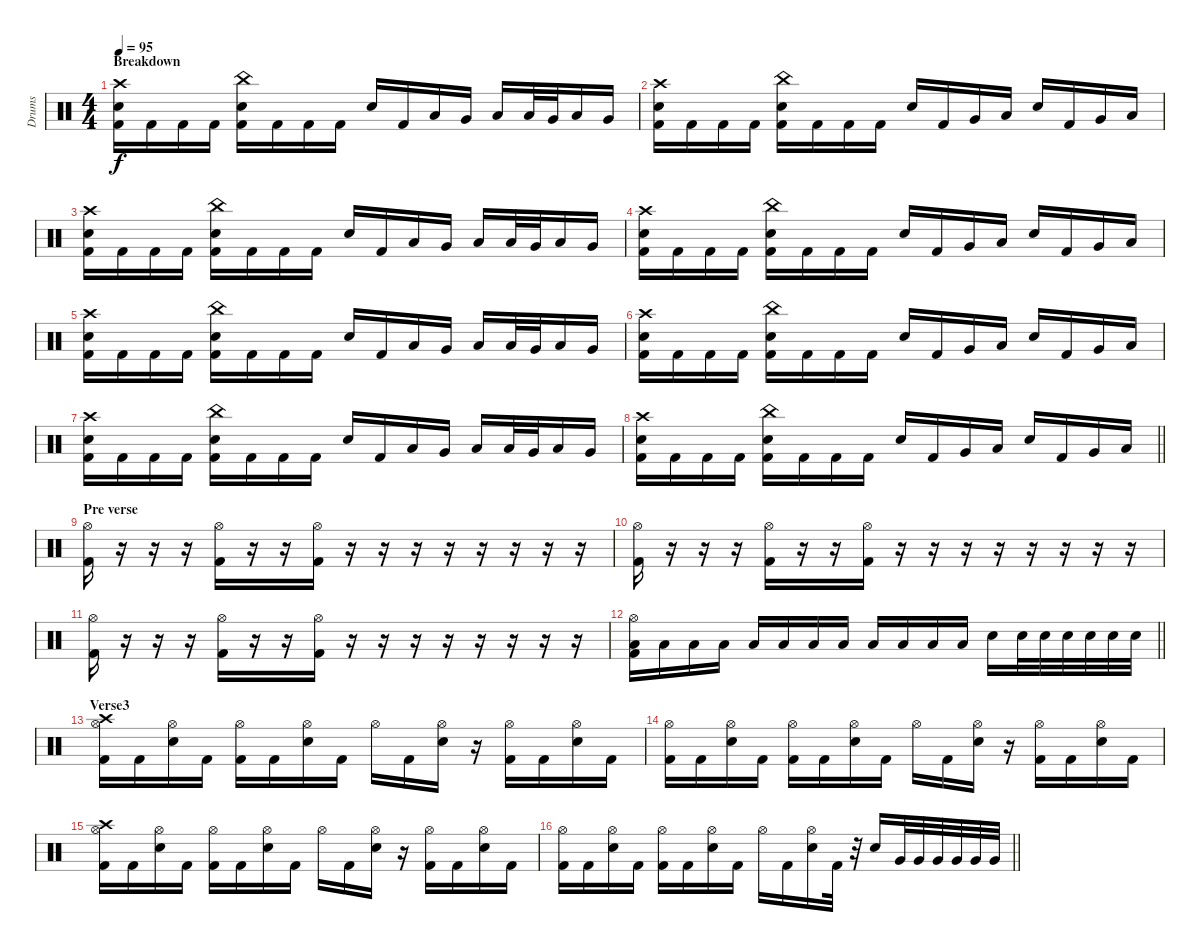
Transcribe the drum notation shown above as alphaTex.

\track ("Drums" "Drums") {instrument percussion}
\staff {score}
\articulation defaults
\ts (4 4)
\section ("" "Breakdown")
\tempo 95
\clef neutral
\ks c
("Crash high (hit)" "Kick (hit) 2" "Snare (hit) 2").16{dy f} "Kick (hit) 2".16 "Kick (hit) 2".16 "Kick (hit) 2".16 ("China (hit)" "Kick (hit) 2" "Snare (hit) 2").16 "Kick (hit) 2".16 "Kick (hit) 2".16 "Kick (hit) 2".16 "Snare (hit) 2".16 "Kick (hit) 2".16 "Low Tom (hit)".16 "Very Low Tom (hit)".16 "Low Floor Tom (hit)".16 "Low Tom (hit)".32 "Very Low Tom (hit)".32 "Low Floor Tom (hit)".16 "Very Low Tom (hit)".16 |
("Crash high (hit)" "Kick (hit) 2" "Snare (hit) 2").16 "Kick (hit) 2".16 "Kick (hit) 2".16 "Kick (hit) 2".16 ("China (hit)" "Kick (hit) 2" "Snare (hit) 2").16 "Kick (hit) 2".16 "Kick (hit) 2".16 "Kick (hit) 2".16 "Snare (hit) 2".16 "Kick (hit) 2".16 "Very Low Tom (hit)".16 "Low Floor Tom (hit)".16 "Snare (hit) 2".16 "Kick (hit) 2".16 "Very Low Tom (hit)".16 "Low Floor Tom (hit)".16 |
("Crash high (hit)" "Kick (hit) 2" "Snare (hit) 2").16 "Kick (hit) 2".16 "Kick (hit) 2".16 "Kick (hit) 2".16 ("China (hit)" "Kick (hit) 2" "Snare (hit) 2").16 "Kick (hit) 2".16 "Kick (hit) 2".16 "Kick (hit) 2".16 "Snare (hit) 2".16 "Kick (hit) 2".16 "Low Tom (hit)".16 "Very Low Tom (hit)".16 "Low Floor Tom (hit)".16 "Low Tom (hit)".32 "Very Low Tom (hit)".32 "Low Floor Tom (hit)".16 "Very Low Tom (hit)".16 |
("Crash high (hit)" "Kick (hit) 2" "Snare (hit) 2").16 "Kick (hit) 2".16 "Kick (hit) 2".16 "Kick (hit) 2".16 ("China (hit)" "Kick (hit) 2" "Snare (hit) 2").16 "Kick (hit) 2".16 "Kick (hit) 2".16 "Kick (hit) 2".16 "Snare (hit) 2".16 "Kick (hit) 2".16 "Very Low Tom (hit)".16 "Low Floor Tom (hit)".16 "Snare (hit) 2".16 "Kick (hit) 2".16 "Very Low Tom (hit)".16 "Low Floor Tom (hit)".16 |
("Crash high (hit)" "Kick (hit) 2" "Snare (hit) 2").16 "Kick (hit) 2".16 "Kick (hit) 2".16 "Kick (hit) 2".16 ("China (hit)" "Kick (hit) 2" "Snare (hit) 2").16 "Kick (hit) 2".16 "Kick (hit) 2".16 "Kick (hit) 2".16 "Snare (hit) 2".16 "Kick (hit) 2".16 "Low Tom (hit)".16 "Very Low Tom (hit)".16 "Low Floor Tom (hit)".16 "Low Tom (hit)".32 "Very Low Tom (hit)".32 "Low Floor Tom (hit)".16 "Very Low Tom (hit)".16 |
("Crash high (hit)" "Kick (hit) 2" "Snare (hit) 2").16 "Kick (hit) 2".16 "Kick (hit) 2".16 "Kick (hit) 2".16 ("China (hit)" "Kick (hit) 2" "Snare (hit) 2").16 "Kick (hit) 2".16 "Kick (hit) 2".16 "Kick (hit) 2".16 "Snare (hit) 2".16 "Kick (hit) 2".16 "Very Low Tom (hit)".16 "Low Floor Tom (hit)".16 "Snare (hit) 2".16 "Kick (hit) 2".16 "Very Low Tom (hit)".16 "Low Floor Tom (hit)".16 |
("Crash high (hit)" "Kick (hit) 2" "Snare (hit) 2").16 "Kick (hit) 2".16 "Kick (hit) 2".16 "Kick (hit) 2".16 ("China (hit)" "Kick (hit) 2" "Snare (hit) 2").16 "Kick (hit) 2".16 "Kick (hit) 2".16 "Kick (hit) 2".16 "Snare (hit) 2".16 "Kick (hit) 2".16 "Low Tom (hit)".16 "Very Low Tom (hit)".16 "Low Floor Tom (hit)".16 "Low Tom (hit)".32 "Very Low Tom (hit)".32 "Low Floor Tom (hit)".16 "Very Low Tom (hit)".16 |
\barLineRight lightlight
("Crash high (hit)" "Kick (hit) 2" "Snare (hit) 2").16 "Kick (hit) 2".16 "Kick (hit) 2".16 "Kick (hit) 2".16 ("China (hit)" "Kick (hit) 2" "Snare (hit) 2").16 "Kick (hit) 2".16 "Kick (hit) 2".16 "Kick (hit) 2".16 "Snare (hit) 2".16 "Kick (hit) 2".16 "Very Low Tom (hit)".16 "Low Floor Tom (hit)".16 "Snare (hit) 2".16 "Kick (hit) 2".16 "Very Low Tom (hit)".16 "Low Floor Tom (hit)".16 |
\section ("" "Pre verse")
("Hi-Hat (open)" "Kick (hit) 2").16 r.16 r.16 r.16 ("Hi-Hat (open)" "Kick (hit) 2").16 r.16 r.16 ("Hi-Hat (open)" "Kick (hit) 2").16 r.16 r.16 r.16 r.16 r.16 r.16 r.16 r.16 |
("Hi-Hat (open)" "Kick (hit) 2").16 r.16 r.16 r.16 ("Hi-Hat (open)" "Kick (hit) 2").16 r.16 r.16 ("Hi-Hat (open)" "Kick (hit) 2").16 r.16 r.16 r.16 r.16 r.16 r.16 r.16 r.16 |
("Hi-Hat (open)" "Kick (hit) 2").16 r.16 r.16 r.16 ("Hi-Hat (open)" "Kick (hit) 2").16 r.16 r.16 ("Hi-Hat (open)" "Kick (hit) 2").16 r.16 r.16 r.16 r.16 r.16 r.16 r.16 r.16 |
\barLineRight lightlight
("Low Floor Tom (hit)" "Hi-Hat (open)" "Kick (hit) 2").16 "Low Floor Tom (hit)".16 "Low Floor Tom (hit)".16 "Low Floor Tom (hit)".16 "Low Floor Tom (hit)".16 "Low Floor Tom (hit)".16 "Low Floor Tom (hit)".16 "Low Floor Tom (hit)".16 "Low Floor Tom (hit)".16 "Low Floor Tom (hit)".16 "Low Floor Tom (hit)".16 "Low Floor Tom (hit)".16 "Snare (hit) 2".16 "Snare (hit) 2".32 "Snare (hit) 2".32 "Snare (hit) 2".32 "Snare (hit) 2".32 "Snare (hit) 2".32 "Snare (hit) 2".32 |
\section ("" "Verse3")
("Crash high (hit)" "Kick (hit) 2" "Hi-Hat (open)").16 "Kick (hit) 2".16 ("Snare (hit) 2" "Hi-Hat (open)").16 "Kick (hit) 2".16 ("Kick (hit) 2" "Hi-Hat (open)").16 "Kick (hit) 2".16 ("Snare (hit) 2" "Hi-Hat (open)").16 "Kick (hit) 2".16 "Hi-Hat (open)".16 "Kick (hit) 2".16 ("Snare (hit) 2" "Hi-Hat (open)").16 r.16 ("Kick (hit) 2" "Hi-Hat (open)").16 "Kick (hit) 2".16 ("Snare (hit) 2" "Hi-Hat (open)").16 "Kick (hit) 2".16 |
("Kick (hit) 2" "Hi-Hat (open)").16 "Kick (hit) 2".16 ("Snare (hit) 2" "Hi-Hat (open)").16 "Kick (hit) 2".16 ("Kick (hit) 2" "Hi-Hat (open)").16 "Kick (hit) 2".16 ("Snare (hit) 2" "Hi-Hat (open)").16 "Kick (hit) 2".16 "Hi-Hat (open)".16 "Kick (hit) 2".16 ("Snare (hit) 2" "Hi-Hat (open)").16 r.16 ("Kick (hit) 2" "Hi-Hat (open)").16 "Kick (hit) 2".16 ("Snare (hit) 2" "Hi-Hat (open)").16 "Kick (hit) 2".16 |
("Crash high (hit)" "Kick (hit) 2" "Hi-Hat (open)").16 "Kick (hit) 2".16 ("Snare (hit) 2" "Hi-Hat (open)").16 "Kick (hit) 2".16 ("Kick (hit) 2" "Hi-Hat (open)").16 "Kick (hit) 2".16 ("Snare (hit) 2" "Hi-Hat (open)").16 "Kick (hit) 2".16 "Hi-Hat (open)".16 "Kick (hit) 2".16 ("Snare (hit) 2" "Hi-Hat (open)").16 r.16 ("Kick (hit) 2" "Hi-Hat (open)").16 "Kick (hit) 2".16 ("Snare (hit) 2" "Hi-Hat (open)").16 "Kick (hit) 2".16 |
\barLineRight lightlight
("Kick (hit) 2" "Hi-Hat (open)").16 "Kick (hit) 2".16 ("Snare (hit) 2" "Hi-Hat (open)").16 "Kick (hit) 2".16 ("Kick (hit) 2" "Hi-Hat (open)").16 "Kick (hit) 2".16 ("Snare (hit) 2" "Hi-Hat (open)").16 "Kick (hit) 2".16 "Hi-Hat (open)".16 "Kick (hit) 2".16 ("Snare (hit) 2" "Hi-Hat (open)").16 "Kick (hit) 2".32 r.32 "Snare (hit) 2".16 "Very Low Tom (hit)".32 "Very Low Tom (hit)".32 "Very Low Tom (hit)".32 "Very Low Tom (hit)".32 "Very Low Tom (hit)".32 "Very Low Tom (hit)".32
